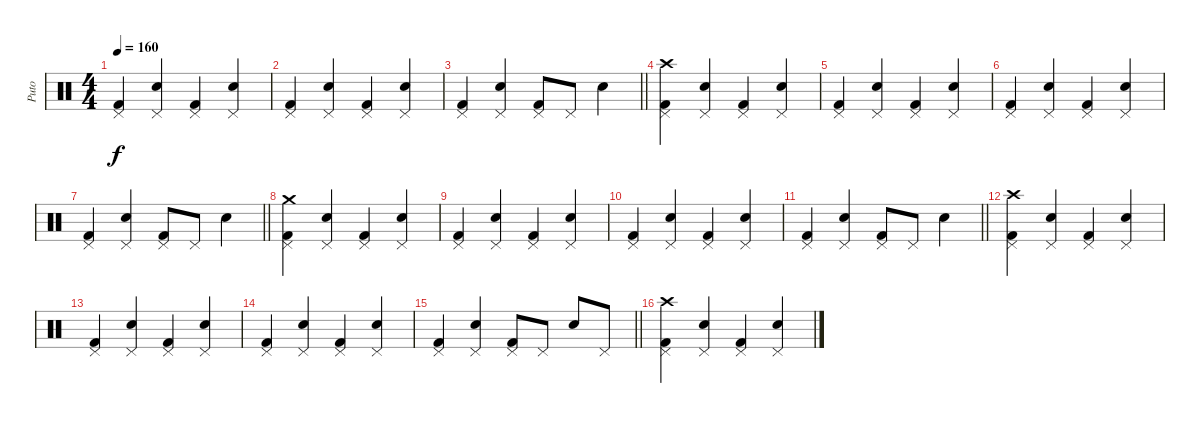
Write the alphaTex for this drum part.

\track ("Puto" "Puto") {instrument percussion}
\staff {score}
\articulation defaults
\ts (4 4)
\tempo 160
\clef neutral
\ks c
("Kick (hit) 2" "Pedal Hi-Hat (hit)").4{dy f} ("Snare (hit) 2" "Pedal Hi-Hat (hit)").4 ("Kick (hit) 2" "Pedal Hi-Hat (hit)").4 ("Snare (hit) 2" "Pedal Hi-Hat (hit)").4 |
("Kick (hit) 2" "Pedal Hi-Hat (hit)").4 ("Snare (hit) 2" "Pedal Hi-Hat (hit)").4 ("Kick (hit) 2" "Pedal Hi-Hat (hit)").4 ("Snare (hit) 2" "Pedal Hi-Hat (hit)").4 |
\barLineRight lightlight
("Kick (hit) 2" "Pedal Hi-Hat (hit)").4 ("Snare (hit) 2" "Pedal Hi-Hat (hit)").4 ("Kick (hit) 2" "Pedal Hi-Hat (hit)").8 "Pedal Hi-Hat (hit)".8 "Snare (hit) 2".4 |
("Kick (hit) 2" "Crash high (hit)" "Pedal Hi-Hat (hit)").4 ("Snare (hit) 2" "Pedal Hi-Hat (hit)").4 ("Kick (hit) 2" "Pedal Hi-Hat (hit)").4 ("Snare (hit) 2" "Pedal Hi-Hat (hit)").4 |
("Kick (hit) 2" "Pedal Hi-Hat (hit)").4 ("Snare (hit) 2" "Pedal Hi-Hat (hit)").4 ("Kick (hit) 2" "Pedal Hi-Hat (hit)").4 ("Snare (hit) 2" "Pedal Hi-Hat (hit)").4 |
("Kick (hit) 2" "Pedal Hi-Hat (hit)").4 ("Snare (hit) 2" "Pedal Hi-Hat (hit)").4 ("Kick (hit) 2" "Pedal Hi-Hat (hit)").4 ("Snare (hit) 2" "Pedal Hi-Hat (hit)").4 |
\barLineRight lightlight
("Kick (hit) 2" "Pedal Hi-Hat (hit)").4 ("Snare (hit) 2" "Pedal Hi-Hat (hit)").4 ("Kick (hit) 2" "Pedal Hi-Hat (hit)").8 "Pedal Hi-Hat (hit)".8 "Snare (hit) 2".4 |
("Kick (hit) 2" "Crash medium (hit)" "Pedal Hi-Hat (hit)").4 ("Snare (hit) 2" "Pedal Hi-Hat (hit)").4 ("Kick (hit) 2" "Pedal Hi-Hat (hit)").4 ("Snare (hit) 2" "Pedal Hi-Hat (hit)").4 |
("Kick (hit) 2" "Pedal Hi-Hat (hit)").4 ("Snare (hit) 2" "Pedal Hi-Hat (hit)").4 ("Kick (hit) 2" "Pedal Hi-Hat (hit)").4 ("Snare (hit) 2" "Pedal Hi-Hat (hit)").4 |
("Kick (hit) 2" "Pedal Hi-Hat (hit)").4 ("Snare (hit) 2" "Pedal Hi-Hat (hit)").4 ("Kick (hit) 2" "Pedal Hi-Hat (hit)").4 ("Snare (hit) 2" "Pedal Hi-Hat (hit)").4 |
\barLineRight lightlight
("Kick (hit) 2" "Pedal Hi-Hat (hit)").4 ("Snare (hit) 2" "Pedal Hi-Hat (hit)").4 ("Kick (hit) 2" "Pedal Hi-Hat (hit)").8 "Pedal Hi-Hat (hit)".8 "Snare (hit) 2".4 |
("Kick (hit) 2" "Crash high (hit)" "Pedal Hi-Hat (hit)").4 ("Snare (hit) 2" "Pedal Hi-Hat (hit)").4 ("Kick (hit) 2" "Pedal Hi-Hat (hit)").4 ("Snare (hit) 2" "Pedal Hi-Hat (hit)").4 |
("Kick (hit) 2" "Pedal Hi-Hat (hit)").4 ("Snare (hit) 2" "Pedal Hi-Hat (hit)").4 ("Kick (hit) 2" "Pedal Hi-Hat (hit)").4 ("Snare (hit) 2" "Pedal Hi-Hat (hit)").4 |
("Kick (hit) 2" "Pedal Hi-Hat (hit)").4 ("Snare (hit) 2" "Pedal Hi-Hat (hit)").4 ("Kick (hit) 2" "Pedal Hi-Hat (hit)").4 ("Snare (hit) 2" "Pedal Hi-Hat (hit)").4 |
\barLineRight lightlight
("Kick (hit) 2" "Pedal Hi-Hat (hit)").4 ("Snare (hit) 2" "Pedal Hi-Hat (hit)").4 ("Kick (hit) 2" "Pedal Hi-Hat (hit)").8 "Pedal Hi-Hat (hit)".8 "Snare (hit) 2".8 "Pedal Hi-Hat (hit)".8 |
("Kick (hit) 2" "Crash high (hit)" "Pedal Hi-Hat (hit)").4 ("Snare (hit) 2" "Pedal Hi-Hat (hit)").4 ("Kick (hit) 2" "Pedal Hi-Hat (hit)").4 ("Snare (hit) 2" "Pedal Hi-Hat (hit)").4
